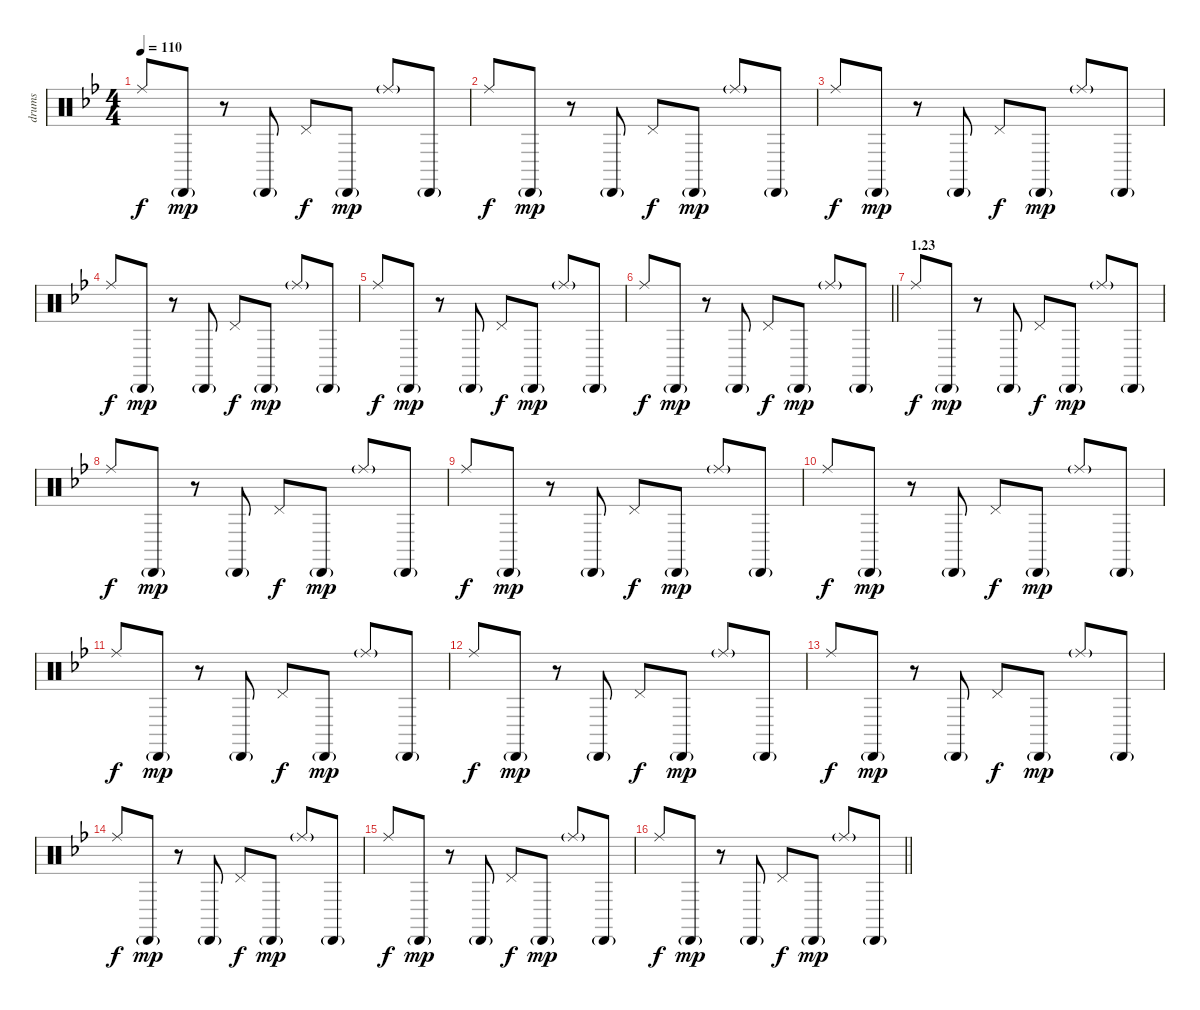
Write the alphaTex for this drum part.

\track ("drums" "drums") {instrument percussion}
\staff {score}
\articulation defaults
\ts (4 4)
\tempo 110
\clef neutral
\ks bb "Ride (middle)".8{dy f} "Cabasa (hit)"{g}.8{dy mp}
r.8 "Cabasa (hit)"{g}.8 "Pedal Hi-Hat (hit)".8{dy f} "Cabasa (hit)"{g}.8{dy mp} "Ride (middle)"{g}.8 "Cabasa (hit)"{g}.8 |
"Ride (middle)".8{dy f} "Cabasa (hit)"{g}.8{dy mp} r.8 "Cabasa (hit)"{g}.8 "Pedal Hi-Hat (hit)".8{dy f} "Cabasa (hit)"{g}.8{dy mp} "Ride (middle)"{g}.8 "Cabasa (hit)"{g}.8 |
"Ride (middle)".8{dy f} "Cabasa (hit)"{g}.8{dy mp} r.8 "Cabasa (hit)"{g}.8 "Pedal Hi-Hat (hit)".8{dy f} "Cabasa (hit)"{g}.8{dy mp} "Ride (middle)"{g}.8 "Cabasa (hit)"{g}.8 |
"Ride (middle)".8{dy f} "Cabasa (hit)"{g}.8{dy mp} r.8 "Cabasa (hit)"{g}.8 "Pedal Hi-Hat (hit)".8{dy f} "Cabasa (hit)"{g}.8{dy mp} "Ride (middle)"{g}.8 "Cabasa (hit)"{g}.8 |
"Ride (middle)".8{dy f} "Cabasa (hit)"{g}.8{dy mp} r.8 "Cabasa (hit)"{g}.8 "Pedal Hi-Hat (hit)".8{dy f} "Cabasa (hit)"{g}.8{dy mp} "Ride (middle)"{g}.8 "Cabasa (hit)"{g}.8 |
\barLineRight lightlight "Ride (middle)".8{dy f} "Cabasa (hit)"{g}.8{dy mp}
r.8 "Cabasa (hit)"{g}.8 "Pedal Hi-Hat (hit)".8{dy f} "Cabasa (hit)"{g}.8{dy mp} "Ride (middle)"{g}.8 "Cabasa (hit)"{g}.8 |
\section ("" "1.23")
"Ride (middle)".8{dy f} "Cabasa (hit)"{g}.8{dy mp} r.8 "Cabasa (hit)"{g}.8 "Pedal Hi-Hat (hit)".8{dy f} "Cabasa (hit)"{g}.8{dy mp} "Ride (middle)"{g}.8 "Cabasa (hit)"{g}.8 |
"Ride (middle)".8{dy f} "Cabasa (hit)"{g}.8{dy mp} r.8 "Cabasa (hit)"{g}.8 "Pedal Hi-Hat (hit)".8{dy f} "Cabasa (hit)"{g}.8{dy mp} "Ride (middle)"{g}.8 "Cabasa (hit)"{g}.8 |
"Ride (middle)".8{dy f} "Cabasa (hit)"{g}.8{dy mp} r.8 "Cabasa (hit)"{g}.8 "Pedal Hi-Hat (hit)".8{dy f} "Cabasa (hit)"{g}.8{dy mp} "Ride (middle)"{g}.8 "Cabasa (hit)"{g}.8 |
"Ride (middle)".8{dy f} "Cabasa (hit)"{g}.8{dy mp} r.8 "Cabasa (hit)"{g}.8 "Pedal Hi-Hat (hit)".8{dy f} "Cabasa (hit)"{g}.8{dy mp} "Ride (middle)"{g}.8 "Cabasa (hit)"{g}.8 |
"Ride (middle)".8{dy f} "Cabasa (hit)"{g}.8{dy mp} r.8 "Cabasa (hit)"{g}.8 "Pedal Hi-Hat (hit)".8{dy f} "Cabasa (hit)"{g}.8{dy mp} "Ride (middle)"{g}.8 "Cabasa (hit)"{g}.8 |
"Ride (middle)".8{dy f} "Cabasa (hit)"{g}.8{dy mp} r.8 "Cabasa (hit)"{g}.8 "Pedal Hi-Hat (hit)".8{dy f} "Cabasa (hit)"{g}.8{dy mp} "Ride (middle)"{g}.8 "Cabasa (hit)"{g}.8 |
"Ride (middle)".8{dy f} "Cabasa (hit)"{g}.8{dy mp} r.8 "Cabasa (hit)"{g}.8 "Pedal Hi-Hat (hit)".8{dy f} "Cabasa (hit)"{g}.8{dy mp} "Ride (middle)"{g}.8 "Cabasa (hit)"{g}.8 |
"Ride (middle)".8{dy f} "Cabasa (hit)"{g}.8{dy mp} r.8 "Cabasa (hit)"{g}.8 "Pedal Hi-Hat (hit)".8{dy f} "Cabasa (hit)"{g}.8{dy mp} "Ride (middle)"{g}.8 "Cabasa (hit)"{g}.8 |
"Ride (middle)".8{dy f} "Cabasa (hit)"{g}.8{dy mp} r.8 "Cabasa (hit)"{g}.8 "Pedal Hi-Hat (hit)".8{dy f} "Cabasa (hit)"{g}.8{dy mp} "Ride (middle)"{g}.8 "Cabasa (hit)"{g}.8 |
\barLineRight lightlight "Ride (middle)".8{dy f} "Cabasa (hit)"{g}.8{dy mp}
r.8 "Cabasa (hit)"{g}.8 "Pedal Hi-Hat (hit)".8{dy f} "Cabasa (hit)"{g}.8{dy mp} "Ride (middle)"{g}.8 "Cabasa (hit)"{g}.8
